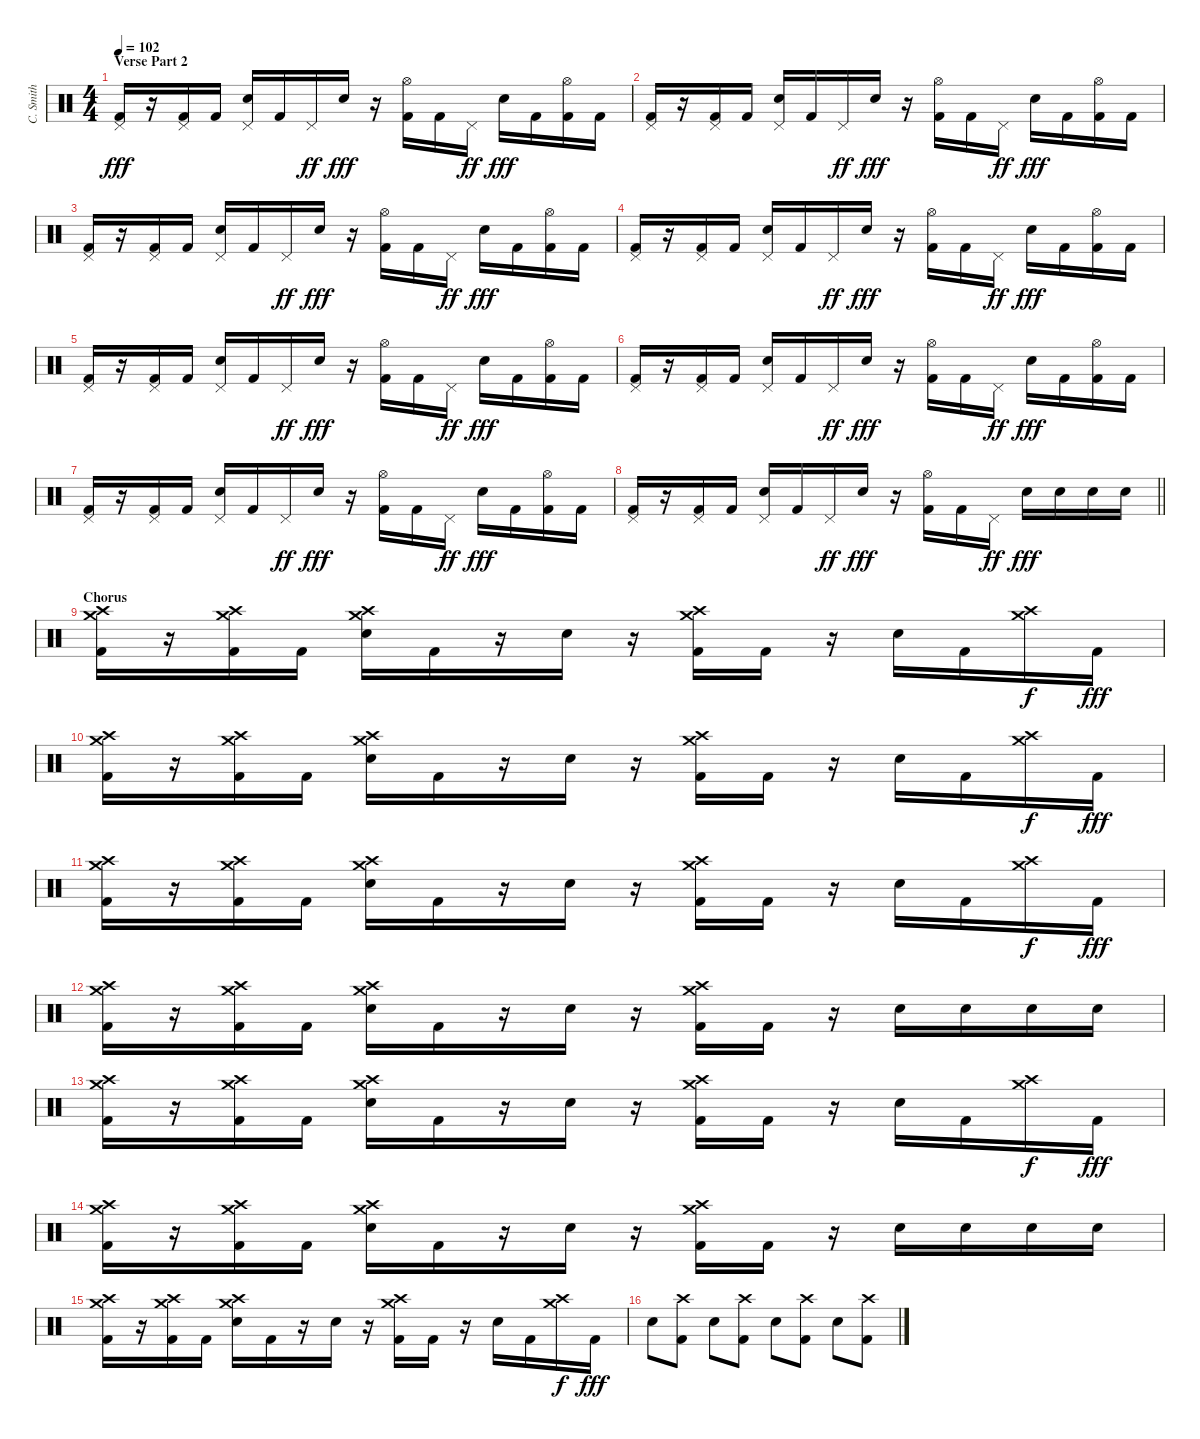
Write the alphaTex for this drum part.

\track ("C. Smith" "C. Smith") {instrument percussion}
\staff {score}
\articulation defaults
\ts (4 4)
\section ("" "Verse Part 2")
\tempo 102
\clef neutral
\ks c
("Pedal Hi-Hat (hit)" "Kick (hit) 2").16{dy fff} r.16 ("Pedal Hi-Hat (hit)" "Kick (hit) 2").16 "Kick (hit) 2".16 ("Pedal Hi-Hat (hit)" "Snare (hit) 2").16 "Kick (hit) 2".16 "Pedal Hi-Hat (hit)".16{dy ff} "Snare (hit) 2".16{dy fff} r.16 ("Hi-Hat (open)" "Kick (hit) 2").16 "Kick (hit) 2".16 "Pedal Hi-Hat (hit)".16{dy ff} "Snare (hit) 2".16{dy fff} "Kick (hit) 2".16 ("Hi-Hat (open)" "Kick (hit) 2").16 "Kick (hit) 2".16 |
("Pedal Hi-Hat (hit)" "Kick (hit) 2").16 r.16 ("Pedal Hi-Hat (hit)" "Kick (hit) 2").16 "Kick (hit) 2".16 ("Pedal Hi-Hat (hit)" "Snare (hit) 2").16 "Kick (hit) 2".16 "Pedal Hi-Hat (hit)".16{dy ff} "Snare (hit) 2".16{dy fff} r.16 ("Hi-Hat (open)" "Kick (hit) 2").16 "Kick (hit) 2".16 "Pedal Hi-Hat (hit)".16{dy ff} "Snare (hit) 2".16{dy fff} "Kick (hit) 2".16 ("Hi-Hat (open)" "Kick (hit) 2").16 "Kick (hit) 2".16 |
("Pedal Hi-Hat (hit)" "Kick (hit) 2").16 r.16 ("Pedal Hi-Hat (hit)" "Kick (hit) 2").16 "Kick (hit) 2".16 ("Pedal Hi-Hat (hit)" "Snare (hit) 2").16 "Kick (hit) 2".16 "Pedal Hi-Hat (hit)".16{dy ff} "Snare (hit) 2".16{dy fff} r.16 ("Hi-Hat (open)" "Kick (hit) 2").16 "Kick (hit) 2".16 "Pedal Hi-Hat (hit)".16{dy ff} "Snare (hit) 2".16{dy fff} "Kick (hit) 2".16 ("Hi-Hat (open)" "Kick (hit) 2").16 "Kick (hit) 2".16 |
("Pedal Hi-Hat (hit)" "Kick (hit) 2").16 r.16 ("Pedal Hi-Hat (hit)" "Kick (hit) 2").16 "Kick (hit) 2".16 ("Pedal Hi-Hat (hit)" "Snare (hit) 2").16 "Kick (hit) 2".16 "Pedal Hi-Hat (hit)".16{dy ff} "Snare (hit) 2".16{dy fff} r.16 ("Hi-Hat (open)" "Kick (hit) 2").16 "Kick (hit) 2".16 "Pedal Hi-Hat (hit)".16{dy ff} "Snare (hit) 2".16{dy fff} "Kick (hit) 2".16 ("Hi-Hat (open)" "Kick (hit) 2").16 "Kick (hit) 2".16 |
("Pedal Hi-Hat (hit)" "Kick (hit) 2").16 r.16 ("Pedal Hi-Hat (hit)" "Kick (hit) 2").16 "Kick (hit) 2".16 ("Pedal Hi-Hat (hit)" "Snare (hit) 2").16 "Kick (hit) 2".16 "Pedal Hi-Hat (hit)".16{dy ff} "Snare (hit) 2".16{dy fff} r.16 ("Hi-Hat (open)" "Kick (hit) 2").16 "Kick (hit) 2".16 "Pedal Hi-Hat (hit)".16{dy ff} "Snare (hit) 2".16{dy fff} "Kick (hit) 2".16 ("Hi-Hat (open)" "Kick (hit) 2").16 "Kick (hit) 2".16 |
("Pedal Hi-Hat (hit)" "Kick (hit) 2").16 r.16 ("Pedal Hi-Hat (hit)" "Kick (hit) 2").16 "Kick (hit) 2".16 ("Pedal Hi-Hat (hit)" "Snare (hit) 2").16 "Kick (hit) 2".16 "Pedal Hi-Hat (hit)".16{dy ff} "Snare (hit) 2".16{dy fff} r.16 ("Hi-Hat (open)" "Kick (hit) 2").16 "Kick (hit) 2".16 "Pedal Hi-Hat (hit)".16{dy ff} "Snare (hit) 2".16{dy fff} "Kick (hit) 2".16 ("Hi-Hat (open)" "Kick (hit) 2").16 "Kick (hit) 2".16 |
("Pedal Hi-Hat (hit)" "Kick (hit) 2").16 r.16 ("Pedal Hi-Hat (hit)" "Kick (hit) 2").16 "Kick (hit) 2".16 ("Pedal Hi-Hat (hit)" "Snare (hit) 2").16 "Kick (hit) 2".16 "Pedal Hi-Hat (hit)".16{dy ff} "Snare (hit) 2".16{dy fff} r.16 ("Hi-Hat (open)" "Kick (hit) 2").16 "Kick (hit) 2".16 "Pedal Hi-Hat (hit)".16{dy ff} "Snare (hit) 2".16{dy fff} "Kick (hit) 2".16 ("Hi-Hat (open)" "Kick (hit) 2").16 "Kick (hit) 2".16 |
\barLineRight lightlight
("Pedal Hi-Hat (hit)" "Kick (hit) 2").16 r.16 ("Pedal Hi-Hat (hit)" "Kick (hit) 2").16 "Kick (hit) 2".16 ("Pedal Hi-Hat (hit)" "Snare (hit) 2").16 "Kick (hit) 2".16 "Pedal Hi-Hat (hit)".16{dy ff} "Snare (hit) 2".16{dy fff} r.16 ("Hi-Hat (open)" "Kick (hit) 2").16 "Kick (hit) 2".16 "Pedal Hi-Hat (hit)".16{dy ff} "Snare (hit) 2".16{dy fff} "Snare (hit) 2".16 "Snare (hit) 2".16 "Snare (hit) 2".16 |
\section ("" "Chorus")
("Crash medium (hit)" "Crash high (hit)" "Kick (hit) 2").16{volume 11} r.16 ("Crash medium (hit)" "Crash high (hit)" "Kick (hit) 2").16 "Kick (hit) 2".16 ("Crash medium (hit)" "Crash high (hit)" "Snare (hit) 2").16 "Kick (hit) 2".16 r.16 "Snare (hit) 2".16 r.16 ("Crash medium (hit)" "Crash high (hit)" "Kick (hit) 2").16 "Kick (hit) 2".16 r.16 "Snare (hit) 2".16 "Kick (hit) 2".16 ("Crash medium (hit)" "Crash high (hit)").16{dy f} "Kick (hit) 2".16{dy fff} |
("Crash medium (hit)" "Crash high (hit)" "Kick (hit) 2").16 r.16 ("Crash medium (hit)" "Crash high (hit)" "Kick (hit) 2").16 "Kick (hit) 2".16 ("Crash medium (hit)" "Crash high (hit)" "Snare (hit) 2").16 "Kick (hit) 2".16 r.16 "Snare (hit) 2".16 r.16 ("Crash medium (hit)" "Crash high (hit)" "Kick (hit) 2").16 "Kick (hit) 2".16 r.16 "Snare (hit) 2".16 "Kick (hit) 2".16 ("Crash medium (hit)" "Crash high (hit)").16{dy f} "Kick (hit) 2".16{dy fff} |
("Crash medium (hit)" "Crash high (hit)" "Kick (hit) 2").16 r.16 ("Crash medium (hit)" "Crash high (hit)" "Kick (hit) 2").16 "Kick (hit) 2".16 ("Crash medium (hit)" "Crash high (hit)" "Snare (hit) 2").16 "Kick (hit) 2".16 r.16 "Snare (hit) 2".16 r.16 ("Crash medium (hit)" "Crash high (hit)" "Kick (hit) 2").16 "Kick (hit) 2".16 r.16 "Snare (hit) 2".16 "Kick (hit) 2".16 ("Crash medium (hit)" "Crash high (hit)").16{dy f} "Kick (hit) 2".16{dy fff} |
("Crash medium (hit)" "Crash high (hit)" "Kick (hit) 2").16 r.16 ("Crash medium (hit)" "Crash high (hit)" "Kick (hit) 2").16 "Kick (hit) 2".16 ("Crash medium (hit)" "Crash high (hit)" "Snare (hit) 2").16 "Kick (hit) 2".16 r.16 "Snare (hit) 2".16 r.16 ("Crash medium (hit)" "Crash high (hit)" "Kick (hit) 2").16 "Kick (hit) 2".16 r.16 "Snare (hit) 2".16 "Snare (hit) 2".16 "Snare (hit) 2".16 "Snare (hit) 2".16 |
("Crash medium (hit)" "Crash high (hit)" "Kick (hit) 2").16 r.16 ("Crash medium (hit)" "Crash high (hit)" "Kick (hit) 2").16 "Kick (hit) 2".16 ("Crash medium (hit)" "Crash high (hit)" "Snare (hit) 2").16 "Kick (hit) 2".16 r.16 "Snare (hit) 2".16 r.16 ("Crash medium (hit)" "Crash high (hit)" "Kick (hit) 2").16 "Kick (hit) 2".16 r.16 "Snare (hit) 2".16 "Kick (hit) 2".16 ("Crash medium (hit)" "Crash high (hit)").16{dy f} "Kick (hit) 2".16{dy fff} |
("Crash medium (hit)" "Crash high (hit)" "Kick (hit) 2").16 r.16 ("Crash medium (hit)" "Crash high (hit)" "Kick (hit) 2").16 "Kick (hit) 2".16 ("Crash medium (hit)" "Crash high (hit)" "Snare (hit) 2").16 "Kick (hit) 2".16 r.16 "Snare (hit) 2".16 r.16 ("Crash medium (hit)" "Crash high (hit)" "Kick (hit) 2").16 "Kick (hit) 2".16 r.16 "Snare (hit) 2".16 "Snare (hit) 2".16 "Snare (hit) 2".16 "Snare (hit) 2".16 |
("Crash medium (hit)" "Crash high (hit)" "Kick (hit) 2").16 r.16 ("Crash medium (hit)" "Crash high (hit)" "Kick (hit) 2").16 "Kick (hit) 2".16 ("Crash medium (hit)" "Crash high (hit)" "Snare (hit) 2").16 "Kick (hit) 2".16 r.16 "Snare (hit) 2".16 r.16 ("Crash medium (hit)" "Crash high (hit)" "Kick (hit) 2").16 "Kick (hit) 2".16 r.16 "Snare (hit) 2".16 "Kick (hit) 2".16 ("Crash medium (hit)" "Crash high (hit)").16{dy f} "Kick (hit) 2".16{dy fff} |
"Snare (hit) 2".8 ("Crash high (hit)" "Kick (hit) 2").8 "Snare (hit) 2".8 ("Crash high (hit)" "Kick (hit) 2").8 "Snare (hit) 2".8 ("Crash high (hit)" "Kick (hit) 2").8 "Snare (hit) 2".8 ("Crash high (hit)" "Kick (hit) 2").8
